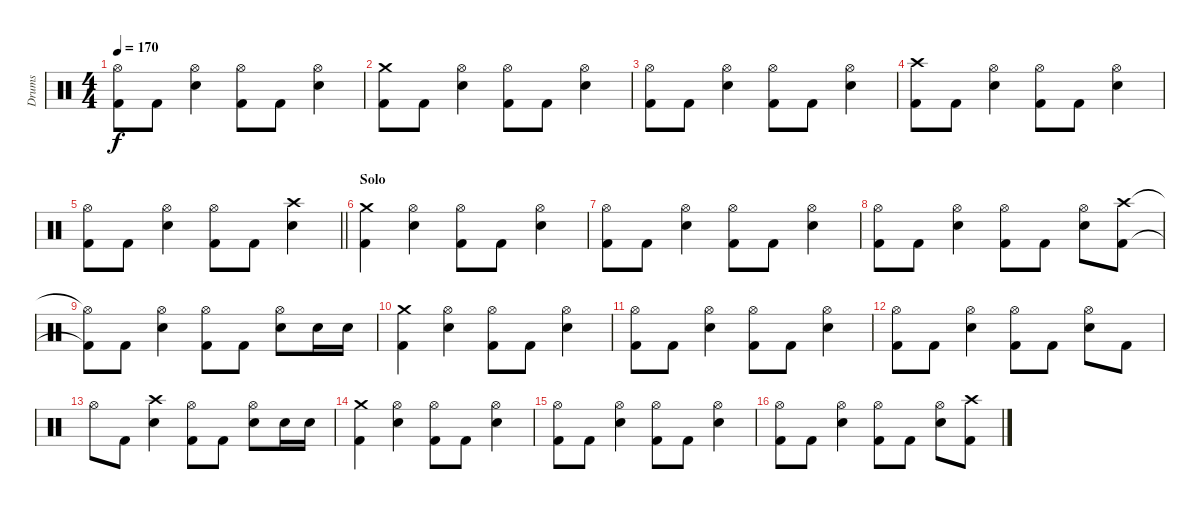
\track ("Drums" "Drums") {instrument percussion}
\staff {score}
\articulation defaults
\ts (4 4)
\tempo 170
\clef neutral
\ks c
("Hi-Hat (open)" "Kick (hit) 2").8{dy f} "Kick (hit) 2".8 ("Hi-Hat (open)" "Electric Snare (hit)").4 ("Hi-Hat (open)" "Kick (hit) 2").8 "Kick (hit) 2".8 ("Hi-Hat (open)" "Electric Snare (hit)").4 |
("Crash medium (hit)" "Kick (hit) 2").8 "Kick (hit) 2".8 ("Hi-Hat (open)" "Electric Snare (hit)").4 ("Hi-Hat (open)" "Kick (hit) 2").8 "Kick (hit) 2".8 ("Hi-Hat (open)" "Electric Snare (hit)").4 |
("Hi-Hat (open)" "Kick (hit) 2").8 "Kick (hit) 2".8 ("Hi-Hat (open)" "Electric Snare (hit)").4 ("Hi-Hat (open)" "Kick (hit) 2").8 "Kick (hit) 2".8 ("Hi-Hat (open)" "Electric Snare (hit)").4 |
("Crash high (hit)" "Kick (hit) 2").8 "Kick (hit) 2".8 ("Hi-Hat (open)" "Electric Snare (hit)").4 ("Hi-Hat (open)" "Kick (hit) 2").8 "Kick (hit) 2".8 ("Hi-Hat (open)" "Electric Snare (hit)").4 |
\barLineRight lightlight
("Hi-Hat (open)" "Kick (hit) 2").8 "Kick (hit) 2".8 ("Hi-Hat (open)" "Electric Snare (hit)").4 ("Hi-Hat (open)" "Kick (hit) 2").8 "Kick (hit) 2".8 ("Crash high (hit)" "Electric Snare (hit)").4 |
\section ("" "Solo")
("Crash medium (hit)" "Kick (hit) 2").4 ("Hi-Hat (open)" "Electric Snare (hit)").4 ("Hi-Hat (open)" "Kick (hit) 2").8 "Kick (hit) 2".8 ("Hi-Hat (open)" "Electric Snare (hit)").4 |
("Hi-Hat (open)" "Kick (hit) 2").8 "Kick (hit) 2".8 ("Hi-Hat (open)" "Electric Snare (hit)").4 ("Hi-Hat (open)" "Kick (hit) 2").8 "Kick (hit) 2".8 ("Hi-Hat (open)" "Electric Snare (hit)").4 |
("Hi-Hat (open)" "Kick (hit) 2").8 "Kick (hit) 2".8 ("Hi-Hat (open)" "Electric Snare (hit)").4 ("Hi-Hat (open)" "Kick (hit) 2").8 "Kick (hit) 2".8 ("Hi-Hat (open)" "Electric Snare (hit)").8 ("Crash high (hit)" "Kick (hit) 2").8 |
("Hi-Hat (open)"{t} "Kick (hit) 2"{t}).8 "Kick (hit) 2".8 ("Hi-Hat (open)" "Electric Snare (hit)").4 ("Hi-Hat (open)" "Kick (hit) 2").8 "Kick (hit) 2".8 ("Hi-Hat (open)" "Electric Snare (hit)").8 "Electric Snare (hit)".16 "Electric Snare (hit)".16 |
("Crash medium (hit)" "Kick (hit) 2").4 ("Hi-Hat (open)" "Electric Snare (hit)").4 ("Hi-Hat (open)" "Kick (hit) 2").8 "Kick (hit) 2".8 ("Hi-Hat (open)" "Electric Snare (hit)").4 |
("Hi-Hat (open)" "Kick (hit) 2").8 "Kick (hit) 2".8 ("Hi-Hat (open)" "Electric Snare (hit)").4 ("Hi-Hat (open)" "Kick (hit) 2").8 "Kick (hit) 2".8 ("Hi-Hat (open)" "Electric Snare (hit)").4 |
("Hi-Hat (open)" "Kick (hit) 2").8 "Kick (hit) 2".8 ("Hi-Hat (open)" "Electric Snare (hit)").4 ("Hi-Hat (open)" "Kick (hit) 2").8 "Kick (hit) 2".8 ("Hi-Hat (open)" "Electric Snare (hit)").8 "Kick (hit) 2".8 |
"Hi-Hat (open)".8 "Kick (hit) 2".8 ("Crash high (hit)" "Electric Snare (hit)").4 ("Hi-Hat (open)" "Kick (hit) 2").8 "Kick (hit) 2".8 ("Hi-Hat (open)" "Electric Snare (hit)").8 "Electric Snare (hit)".16 "Electric Snare (hit)".16 |
("Crash medium (hit)" "Kick (hit) 2").4 ("Hi-Hat (open)" "Electric Snare (hit)").4 ("Hi-Hat (open)" "Kick (hit) 2").8 "Kick (hit) 2".8 ("Hi-Hat (open)" "Electric Snare (hit)").4 |
("Hi-Hat (open)" "Kick (hit) 2").8 "Kick (hit) 2".8 ("Hi-Hat (open)" "Electric Snare (hit)").4 ("Hi-Hat (open)" "Kick (hit) 2").8 "Kick (hit) 2".8 ("Hi-Hat (open)" "Electric Snare (hit)").4 |
("Hi-Hat (open)" "Kick (hit) 2").8 "Kick (hit) 2".8 ("Hi-Hat (open)" "Electric Snare (hit)").4 ("Hi-Hat (open)" "Kick (hit) 2").8 "Kick (hit) 2".8 ("Hi-Hat (open)" "Electric Snare (hit)").8 ("Crash high (hit)" "Kick (hit) 2").8
